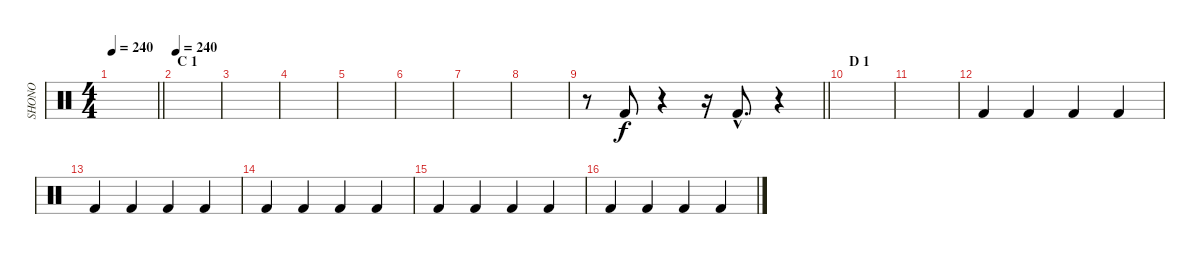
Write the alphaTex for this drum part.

\track ("SHONO" "SHONO") {instrument percussion}
\staff {score}
\articulation defaults
\ts (4 4)
\tempo 240
\clef neutral
\barLineRight lightlight
\ks c
|
\section ("" "C 1")
\tempo 240
|
|
|
|
|
|
|
\barLineRight lightlight
r.8 "Kick (hit) 2".8 r.4 r.16 "Kick (hit) 2"{hac}.8{d} r.4 |
\section ("" "D 1")
|
|
"Kick (hit) 2".4 "Kick (hit) 2".4 "Kick (hit) 2".4 "Kick (hit) 2".4 |
"Kick (hit) 2".4 "Kick (hit) 2".4 "Kick (hit) 2".4 "Kick (hit) 2".4 |
"Kick (hit) 2".4 "Kick (hit) 2".4 "Kick (hit) 2".4 "Kick (hit) 2".4 |
"Kick (hit) 2".4 "Kick (hit) 2".4 "Kick (hit) 2".4 "Kick (hit) 2".4 |
"Kick (hit) 2".4 "Kick (hit) 2".4 "Kick (hit) 2".4 "Kick (hit) 2".4
